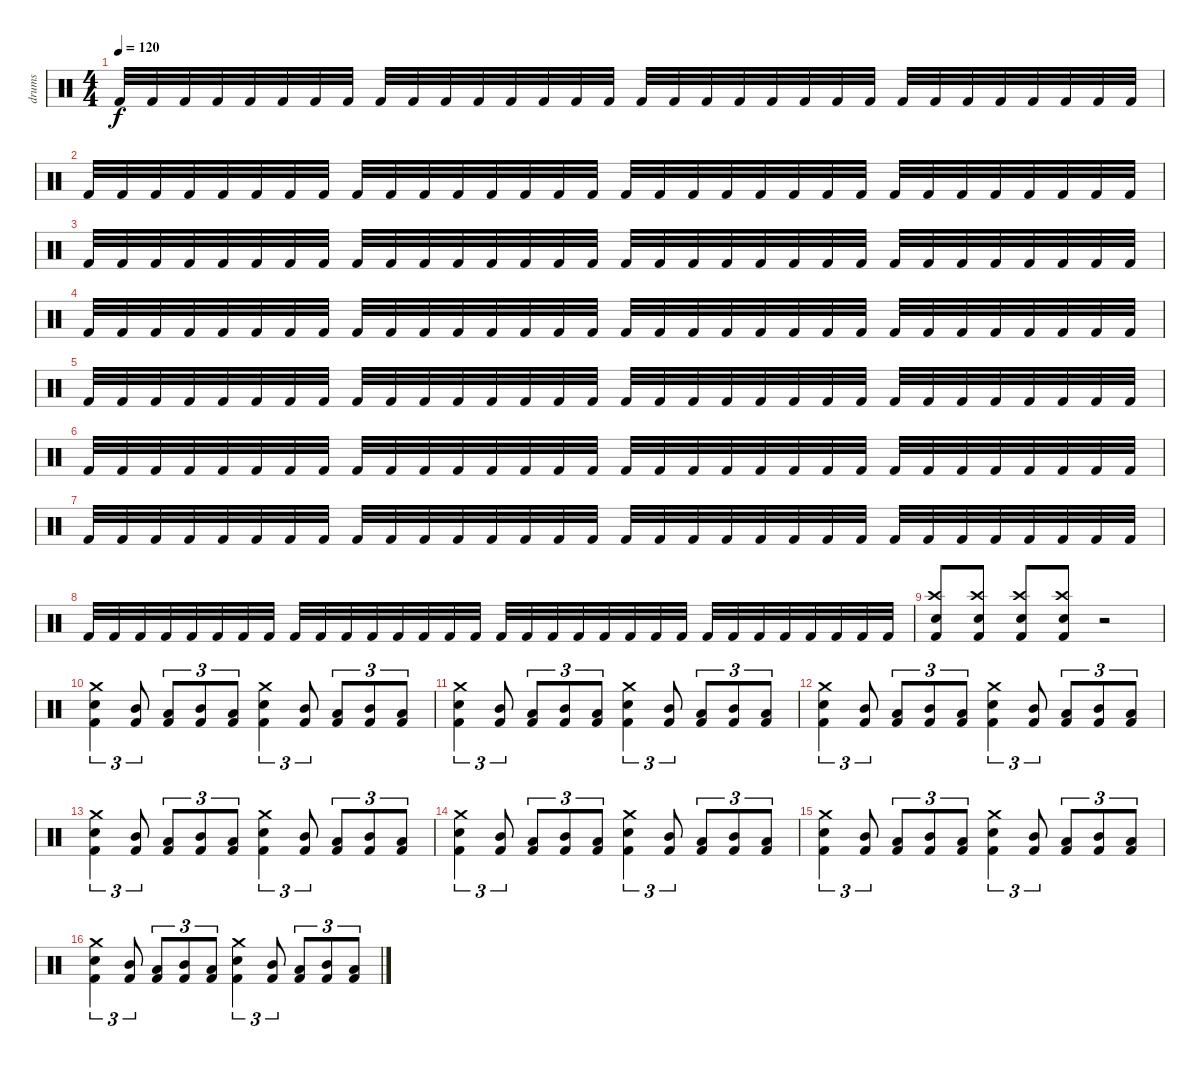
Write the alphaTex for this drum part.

\track ("drums" "drums") {instrument percussion}
\staff {score}
\articulation defaults
\ts (4 4)
\tempo 120
\clef neutral
\ks c "Kick (hit) 2".32{dy f} "Kick (hit) 2".32 "Kick (hit) 2".32 "Kick (hit) 2".32 "Kick (hit) 2".32 "Kick (hit) 2".32 "Kick (hit) 2".32 "Kick (hit) 2".32 "Kick (hit) 2".32 "Kick (hit) 2".32 "Kick (hit) 2".32 "Kick (hit) 2".32 "Kick (hit) 2".32 "Kick (hit) 2".32 "Kick (hit) 2".32 "Kick (hit) 2".32 "Kick (hit) 2".32 "Kick (hit) 2".32 "Kick (hit) 2".32 "Kick (hit) 2".32 "Kick (hit) 2".32 "Kick (hit) 2".32 "Kick (hit) 2".32 "Kick (hit) 2".32 "Kick (hit) 2".32 "Kick (hit) 2".32 "Kick (hit) 2".32 "Kick (hit) 2".32 "Kick (hit) 2".32 "Kick (hit) 2".32 "Kick (hit) 2".32 "Kick (hit) 2".32
|
"Kick (hit) 2".32 "Kick (hit) 2".32 "Kick (hit) 2".32 "Kick (hit) 2".32 "Kick (hit) 2".32 "Kick (hit) 2".32 "Kick (hit) 2".32 "Kick (hit) 2".32 "Kick (hit) 2".32 "Kick (hit) 2".32 "Kick (hit) 2".32 "Kick (hit) 2".32 "Kick (hit) 2".32 "Kick (hit) 2".32 "Kick (hit) 2".32 "Kick (hit) 2".32 "Kick (hit) 2".32 "Kick (hit) 2".32 "Kick (hit) 2".32 "Kick (hit) 2".32 "Kick (hit) 2".32 "Kick (hit) 2".32 "Kick (hit) 2".32 "Kick (hit) 2".32 "Kick (hit) 2".32 "Kick (hit) 2".32 "Kick (hit) 2".32 "Kick (hit) 2".32 "Kick (hit) 2".32 "Kick (hit) 2".32 "Kick (hit) 2".32 "Kick (hit) 2".32 |
"Kick (hit) 2".32 "Kick (hit) 2".32 "Kick (hit) 2".32 "Kick (hit) 2".32 "Kick (hit) 2".32 "Kick (hit) 2".32 "Kick (hit) 2".32 "Kick (hit) 2".32 "Kick (hit) 2".32 "Kick (hit) 2".32 "Kick (hit) 2".32 "Kick (hit) 2".32 "Kick (hit) 2".32 "Kick (hit) 2".32 "Kick (hit) 2".32 "Kick (hit) 2".32 "Kick (hit) 2".32 "Kick (hit) 2".32 "Kick (hit) 2".32 "Kick (hit) 2".32 "Kick (hit) 2".32 "Kick (hit) 2".32 "Kick (hit) 2".32 "Kick (hit) 2".32 "Kick (hit) 2".32 "Kick (hit) 2".32 "Kick (hit) 2".32 "Kick (hit) 2".32 "Kick (hit) 2".32 "Kick (hit) 2".32 "Kick (hit) 2".32 "Kick (hit) 2".32 |
"Kick (hit) 2".32 "Kick (hit) 2".32 "Kick (hit) 2".32 "Kick (hit) 2".32 "Kick (hit) 2".32 "Kick (hit) 2".32 "Kick (hit) 2".32 "Kick (hit) 2".32 "Kick (hit) 2".32 "Kick (hit) 2".32 "Kick (hit) 2".32 "Kick (hit) 2".32 "Kick (hit) 2".32 "Kick (hit) 2".32 "Kick (hit) 2".32 "Kick (hit) 2".32 "Kick (hit) 2".32 "Kick (hit) 2".32 "Kick (hit) 2".32 "Kick (hit) 2".32 "Kick (hit) 2".32 "Kick (hit) 2".32 "Kick (hit) 2".32 "Kick (hit) 2".32 "Kick (hit) 2".32 "Kick (hit) 2".32 "Kick (hit) 2".32 "Kick (hit) 2".32 "Kick (hit) 2".32 "Kick (hit) 2".32 "Kick (hit) 2".32 "Kick (hit) 2".32 |
"Kick (hit) 2".32 "Kick (hit) 2".32 "Kick (hit) 2".32 "Kick (hit) 2".32 "Kick (hit) 2".32 "Kick (hit) 2".32 "Kick (hit) 2".32 "Kick (hit) 2".32 "Kick (hit) 2".32 "Kick (hit) 2".32 "Kick (hit) 2".32 "Kick (hit) 2".32 "Kick (hit) 2".32 "Kick (hit) 2".32 "Kick (hit) 2".32 "Kick (hit) 2".32 "Kick (hit) 2".32 "Kick (hit) 2".32 "Kick (hit) 2".32 "Kick (hit) 2".32 "Kick (hit) 2".32 "Kick (hit) 2".32 "Kick (hit) 2".32 "Kick (hit) 2".32 "Kick (hit) 2".32 "Kick (hit) 2".32 "Kick (hit) 2".32 "Kick (hit) 2".32 "Kick (hit) 2".32 "Kick (hit) 2".32 "Kick (hit) 2".32 "Kick (hit) 2".32 |
"Kick (hit) 2".32 "Kick (hit) 2".32 "Kick (hit) 2".32 "Kick (hit) 2".32 "Kick (hit) 2".32 "Kick (hit) 2".32 "Kick (hit) 2".32 "Kick (hit) 2".32 "Kick (hit) 2".32 "Kick (hit) 2".32 "Kick (hit) 2".32 "Kick (hit) 2".32 "Kick (hit) 2".32 "Kick (hit) 2".32 "Kick (hit) 2".32 "Kick (hit) 2".32 "Kick (hit) 2".32 "Kick (hit) 2".32 "Kick (hit) 2".32 "Kick (hit) 2".32 "Kick (hit) 2".32 "Kick (hit) 2".32 "Kick (hit) 2".32 "Kick (hit) 2".32 "Kick (hit) 2".32 "Kick (hit) 2".32 "Kick (hit) 2".32 "Kick (hit) 2".32 "Kick (hit) 2".32 "Kick (hit) 2".32 "Kick (hit) 2".32 "Kick (hit) 2".32 |
"Kick (hit) 2".32 "Kick (hit) 2".32 "Kick (hit) 2".32 "Kick (hit) 2".32 "Kick (hit) 2".32 "Kick (hit) 2".32 "Kick (hit) 2".32 "Kick (hit) 2".32 "Kick (hit) 2".32 "Kick (hit) 2".32 "Kick (hit) 2".32 "Kick (hit) 2".32 "Kick (hit) 2".32 "Kick (hit) 2".32 "Kick (hit) 2".32 "Kick (hit) 2".32 "Kick (hit) 2".32 "Kick (hit) 2".32 "Kick (hit) 2".32 "Kick (hit) 2".32 "Kick (hit) 2".32 "Kick (hit) 2".32 "Kick (hit) 2".32 "Kick (hit) 2".32 "Kick (hit) 2".32 "Kick (hit) 2".32 "Kick (hit) 2".32 "Kick (hit) 2".32 "Kick (hit) 2".32 "Kick (hit) 2".32 "Kick (hit) 2".32 "Kick (hit) 2".32 |
"Kick (hit) 2".32 "Kick (hit) 2".32 "Kick (hit) 2".32 "Kick (hit) 2".32 "Kick (hit) 2".32 "Kick (hit) 2".32 "Kick (hit) 2".32 "Kick (hit) 2".32 "Kick (hit) 2".32 "Kick (hit) 2".32 "Kick (hit) 2".32 "Kick (hit) 2".32 "Kick (hit) 2".32 "Kick (hit) 2".32 "Kick (hit) 2".32 "Kick (hit) 2".32 "Kick (hit) 2".32 "Kick (hit) 2".32 "Kick (hit) 2".32 "Kick (hit) 2".32 "Kick (hit) 2".32 "Kick (hit) 2".32 "Kick (hit) 2".32 "Kick (hit) 2".32 "Kick (hit) 2".32 "Kick (hit) 2".32 "Kick (hit) 2".32 "Kick (hit) 2".32 "Kick (hit) 2".32 "Kick (hit) 2".32 "Kick (hit) 2".32 "Kick (hit) 2".32 |
("Crash high (hit)" "Electric Snare (hit)" "Kick (hit) 2").8 ("Crash high (hit)" "Electric Snare (hit)" "Kick (hit) 2").8 ("Crash high (hit)" "Electric Snare (hit)" "Kick (hit) 2").8 ("Crash high (hit)" "Electric Snare (hit)" "Kick (hit) 2").8 r.2 |
("Crash medium (hit)" "Electric Snare (hit)" "Kick (hit) 2").4{tu (3 2)} ("Mid Tom (hit)" "Kick (hit) 2").8{tu (3 2)} ("Low Tom (hit)" "Kick (hit) 2").8{tu (3 2)} ("Mid Tom (hit)" "Kick (hit) 2").8{tu (3 2)} ("Low Tom (hit)" "Kick (hit) 2").8{tu (3 2)} ("Crash medium (hit)" "Electric Snare (hit)" "Kick (hit) 2").4{tu (3 2)} ("Mid Tom (hit)" "Kick (hit) 2").8{tu (3 2)} ("Low Tom (hit)" "Kick (hit) 2").8{tu (3 2)} ("Mid Tom (hit)" "Kick (hit) 2").8{tu (3 2)} ("Low Tom (hit)" "Kick (hit) 2").8{tu (3 2)} |
("Crash medium (hit)" "Electric Snare (hit)" "Kick (hit) 2").4{tu (3 2)} ("Mid Tom (hit)" "Kick (hit) 2").8{tu (3 2)} ("Low Tom (hit)" "Kick (hit) 2").8{tu (3 2)} ("Mid Tom (hit)" "Kick (hit) 2").8{tu (3 2)} ("Low Tom (hit)" "Kick (hit) 2").8{tu (3 2)} ("Crash medium (hit)" "Electric Snare (hit)" "Kick (hit) 2").4{tu (3 2)} ("Mid Tom (hit)" "Kick (hit) 2").8{tu (3 2)} ("Low Tom (hit)" "Kick (hit) 2").8{tu (3 2)} ("Mid Tom (hit)" "Kick (hit) 2").8{tu (3 2)} ("Low Tom (hit)" "Kick (hit) 2").8{tu (3 2)} |
("Crash medium (hit)" "Electric Snare (hit)" "Kick (hit) 2").4{tu (3 2)} ("Mid Tom (hit)" "Kick (hit) 2").8{tu (3 2)} ("Low Tom (hit)" "Kick (hit) 2").8{tu (3 2)} ("Mid Tom (hit)" "Kick (hit) 2").8{tu (3 2)} ("Low Tom (hit)" "Kick (hit) 2").8{tu (3 2)} ("Crash medium (hit)" "Electric Snare (hit)" "Kick (hit) 2").4{tu (3 2)} ("Mid Tom (hit)" "Kick (hit) 2").8{tu (3 2)} ("Low Tom (hit)" "Kick (hit) 2").8{tu (3 2)} ("Mid Tom (hit)" "Kick (hit) 2").8{tu (3 2)} ("Low Tom (hit)" "Kick (hit) 2").8{tu (3 2)} |
("Crash medium (hit)" "Electric Snare (hit)" "Kick (hit) 2").4{tu (3 2)} ("Mid Tom (hit)" "Kick (hit) 2").8{tu (3 2)} ("Low Tom (hit)" "Kick (hit) 2").8{tu (3 2)} ("Mid Tom (hit)" "Kick (hit) 2").8{tu (3 2)} ("Low Tom (hit)" "Kick (hit) 2").8{tu (3 2)} ("Crash medium (hit)" "Electric Snare (hit)" "Kick (hit) 2").4{tu (3 2)} ("Mid Tom (hit)" "Kick (hit) 2").8{tu (3 2)} ("Low Tom (hit)" "Kick (hit) 2").8{tu (3 2)} ("Mid Tom (hit)" "Kick (hit) 2").8{tu (3 2)} ("Low Tom (hit)" "Kick (hit) 2").8{tu (3 2)} |
("Crash medium (hit)" "Electric Snare (hit)" "Kick (hit) 2").4{tu (3 2)} ("Mid Tom (hit)" "Kick (hit) 2").8{tu (3 2)} ("Low Tom (hit)" "Kick (hit) 2").8{tu (3 2)} ("Mid Tom (hit)" "Kick (hit) 2").8{tu (3 2)} ("Low Tom (hit)" "Kick (hit) 2").8{tu (3 2)} ("Crash medium (hit)" "Electric Snare (hit)" "Kick (hit) 2").4{tu (3 2)} ("Mid Tom (hit)" "Kick (hit) 2").8{tu (3 2)} ("Low Tom (hit)" "Kick (hit) 2").8{tu (3 2)} ("Mid Tom (hit)" "Kick (hit) 2").8{tu (3 2)} ("Low Tom (hit)" "Kick (hit) 2").8{tu (3 2)} |
("Crash medium (hit)" "Electric Snare (hit)" "Kick (hit) 2").4{tu (3 2)} ("Mid Tom (hit)" "Kick (hit) 2").8{tu (3 2)} ("Low Tom (hit)" "Kick (hit) 2").8{tu (3 2)} ("Mid Tom (hit)" "Kick (hit) 2").8{tu (3 2)} ("Low Tom (hit)" "Kick (hit) 2").8{tu (3 2)} ("Crash medium (hit)" "Electric Snare (hit)" "Kick (hit) 2").4{tu (3 2)} ("Mid Tom (hit)" "Kick (hit) 2").8{tu (3 2)} ("Low Tom (hit)" "Kick (hit) 2").8{tu (3 2)} ("Mid Tom (hit)" "Kick (hit) 2").8{tu (3 2)} ("Low Tom (hit)" "Kick (hit) 2").8{tu (3 2)} |
("Crash medium (hit)" "Electric Snare (hit)" "Kick (hit) 2").4{tu (3 2)} ("Mid Tom (hit)" "Kick (hit) 2").8{tu (3 2)} ("Low Tom (hit)" "Kick (hit) 2").8{tu (3 2)} ("Mid Tom (hit)" "Kick (hit) 2").8{tu (3 2)} ("Low Tom (hit)" "Kick (hit) 2").8{tu (3 2)} ("Crash medium (hit)" "Electric Snare (hit)" "Kick (hit) 2").4{tu (3 2)} ("Mid Tom (hit)" "Kick (hit) 2").8{tu (3 2)} ("Low Tom (hit)" "Kick (hit) 2").8{tu (3 2)} ("Mid Tom (hit)" "Kick (hit) 2").8{tu (3 2)} ("Low Tom (hit)" "Kick (hit) 2").8{tu (3 2)}
